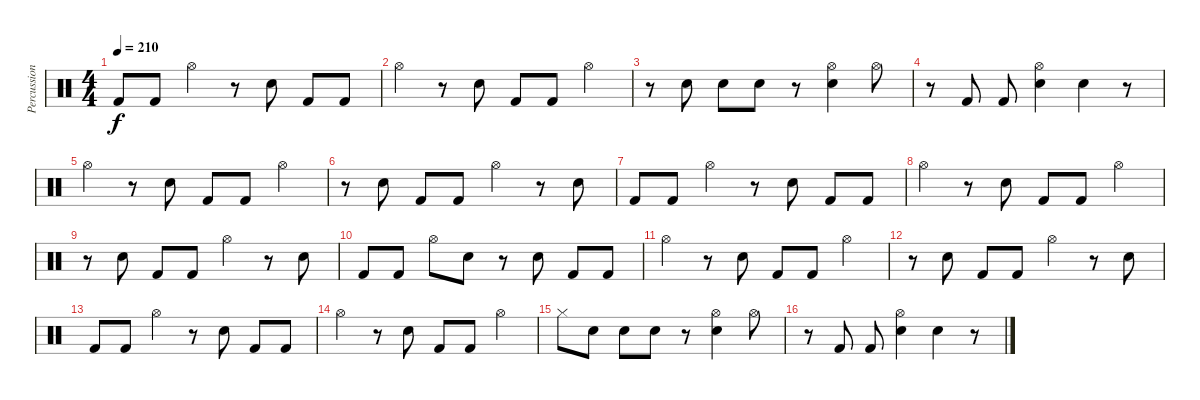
\track ("Percussion" "Percussion") {instrument percussion}
\staff {score}
\articulation defaults
\ts (4 4)
\tempo 210
\clef neutral
\ks c "Kick (hit) 2".8{dy f} "Kick (hit) 2".8 "Hi-Hat (open)".4
r.8 "Snare (hit) 2".8 "Kick (hit) 2".8 "Kick (hit) 2".8 |
"Hi-Hat (open)".4 r.8 "Snare (hit) 2".8 "Kick (hit) 2".8 "Kick (hit) 2".8 "Hi-Hat (open)".4 |
r.8 "Snare (hit) 2".8 "Snare (hit) 2".8 "Snare (hit) 2".8 r.8 ("Hi-Hat (open)" "Snare (hit) 2").4 "Hi-Hat (open)".8 |
r.8 "Kick (hit) 2".8 "Kick (hit) 2".8 ("Hi-Hat (open)" "Snare (hit) 2").4 "Snare (hit) 2".4 r.8 |
"Hi-Hat (open)".4 r.8 "Snare (hit) 2".8 "Kick (hit) 2".8 "Kick (hit) 2".8 "Hi-Hat (open)".4 |
r.8 "Snare (hit) 2".8 "Kick (hit) 2".8 "Kick (hit) 2".8 "Hi-Hat (open)".4 r.8 "Snare (hit) 2".8 |
"Kick (hit) 2".8 "Kick (hit) 2".8 "Hi-Hat (open)".4 r.8 "Snare (hit) 2".8 "Kick (hit) 2".8 "Kick (hit) 2".8 |
"Hi-Hat (open)".4 r.8 "Snare (hit) 2".8 "Kick (hit) 2".8 "Kick (hit) 2".8 "Hi-Hat (open)".4 |
r.8 "Snare (hit) 2".8 "Kick (hit) 2".8 "Kick (hit) 2".8 "Hi-Hat (open)".4 r.8 "Snare (hit) 2".8 |
"Kick (hit) 2".8 "Kick (hit) 2".8 "Hi-Hat (open)".8 "Snare (hit) 2".8 r.8 "Snare (hit) 2".8 "Kick (hit) 2".8 "Kick (hit) 2".8 |
"Hi-Hat (open)".4 r.8 "Snare (hit) 2".8 "Kick (hit) 2".8 "Kick (hit) 2".8 "Hi-Hat (open)".4 |
r.8 "Snare (hit) 2".8 "Kick (hit) 2".8 "Kick (hit) 2".8 "Hi-Hat (open)".4 r.8 "Snare (hit) 2".8 |
"Kick (hit) 2".8 "Kick (hit) 2".8 "Hi-Hat (open)".4 r.8 "Snare (hit) 2".8 "Kick (hit) 2".8 "Kick (hit) 2".8 |
"Hi-Hat (open)".4 r.8 "Snare (hit) 2".8 "Kick (hit) 2".8 "Kick (hit) 2".8 "Hi-Hat (open)".4 |
"Hi-Hat (closed)".8 "Snare (hit) 2".8 "Snare (hit) 2".8 "Snare (hit) 2".8 r.8 ("Hi-Hat (open)" "Snare (hit) 2").4 "Hi-Hat (open)".8 |
r.8 "Kick (hit) 2".8 "Kick (hit) 2".8 ("Hi-Hat (open)" "Snare (hit) 2").4 "Snare (hit) 2".4 r.8
